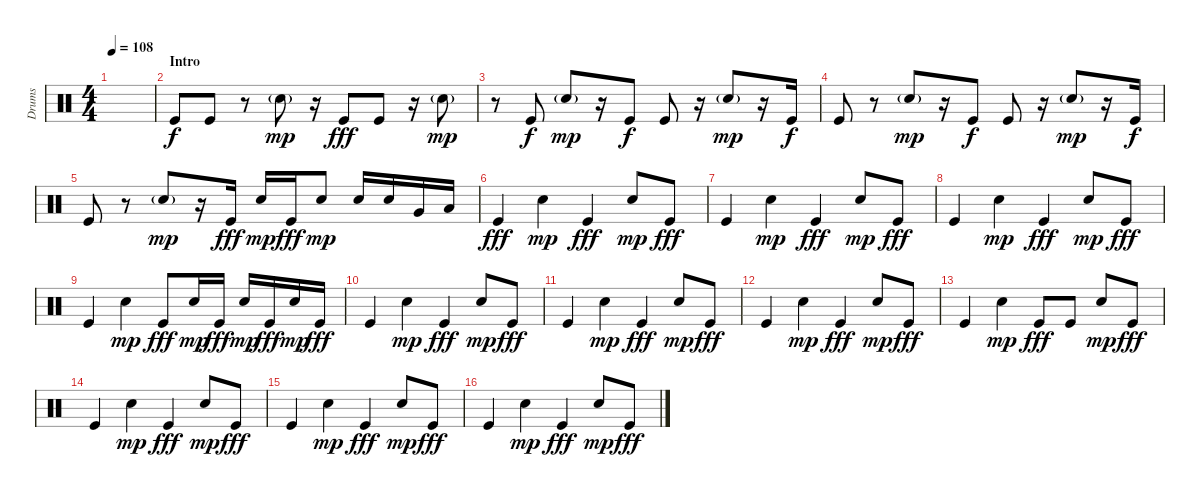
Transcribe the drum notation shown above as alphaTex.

\track ("Drums" "Drums") {instrument percussion}
\staff {score}
\articulation defaults
\ts (4 4)
\tempo 108
\clef neutral
\ks c
|
\section ("" "Intro")
"Kick (hit)".8 "Kick (hit)".8 r.8 "Electric Snare (hit)"{g}.8{dy mp} r.16 "Kick (hit)".8{dy fff} "Kick (hit)".8 r.16 "Electric Snare (hit)"{g}.8{dy mp} |
r.8 "Kick (hit)".8{dy f} "Electric Snare (hit)"{g}.8{dy mp} r.16 "Kick (hit)".8{dy f} "Kick (hit)".8 r.16 "Electric Snare (hit)"{g}.8{dy mp} r.16 "Kick (hit)".16{dy f} |
"Kick (hit)".8 r.8 "Electric Snare (hit)"{g}.8{dy mp} r.16 "Kick (hit)".8{dy f} "Kick (hit)".8 r.16 "Electric Snare (hit)"{g}.8{dy mp} r.16 "Kick (hit)".16{dy f} |
"Kick (hit)".8 r.8 "Electric Snare (hit)"{g}.8{dy mp} r.16 "Kick (hit)".16{dy fff} "Snare (hit) 2".16{dy mp} "Kick (hit)".16{dy fff} "Snare (hit) 2".8{dy mp} "Snare (hit) 2".16 "Snare (hit) 2".16 "Very Low Tom (hit)".16 "Low Floor Tom (hit)".16 |
"Kick (hit)".4{dy fff} "Snare (hit) 2".4{dy mp} "Kick (hit)".4{dy fff} "Snare (hit) 2".8{dy mp} "Kick (hit)".8{dy fff} |
"Kick (hit)".4 "Snare (hit) 2".4{dy mp} "Kick (hit)".4{dy fff} "Snare (hit) 2".8{dy mp} "Kick (hit)".8{dy fff} |
"Kick (hit)".4 "Snare (hit) 2".4{dy mp} "Kick (hit)".4{dy fff} "Snare (hit) 2".8{dy mp} "Kick (hit)".8{dy fff} |
"Kick (hit)".4 "Snare (hit) 2".4{dy mp} "Kick (hit)".8{dy fff} "Snare (hit) 2".16{dy mp} "Kick (hit)".16{dy fff} "Snare (hit) 2".16{dy mp} "Kick (hit)".16{dy fff} "Snare (hit) 2".16{dy mp} "Kick (hit)".16{dy fff} |
"Kick (hit)".4 "Snare (hit) 2".4{dy mp} "Kick (hit)".4{dy fff} "Snare (hit) 2".8{dy mp} "Kick (hit)".8{dy fff} |
"Kick (hit)".4 "Snare (hit) 2".4{dy mp} "Kick (hit)".4{dy fff} "Snare (hit) 2".8{dy mp} "Kick (hit)".8{dy fff} |
"Kick (hit)".4 "Snare (hit) 2".4{dy mp} "Kick (hit)".4{dy fff} "Snare (hit) 2".8{dy mp} "Kick (hit)".8{dy fff} |
"Kick (hit)".4 "Snare (hit) 2".4{dy mp} "Kick (hit)".8{dy fff} "Kick (hit)".8 "Snare (hit) 2".8{dy mp} "Kick (hit)".8{dy fff} |
"Kick (hit)".4 "Snare (hit) 2".4{dy mp} "Kick (hit)".4{dy fff} "Snare (hit) 2".8{dy mp} "Kick (hit)".8{dy fff} |
"Kick (hit)".4 "Snare (hit) 2".4{dy mp} "Kick (hit)".4{dy fff} "Snare (hit) 2".8{dy mp} "Kick (hit)".8{dy fff} |
"Kick (hit)".4 "Snare (hit) 2".4{dy mp} "Kick (hit)".4{dy fff} "Snare (hit) 2".8{dy mp} "Kick (hit)".8{dy fff}
